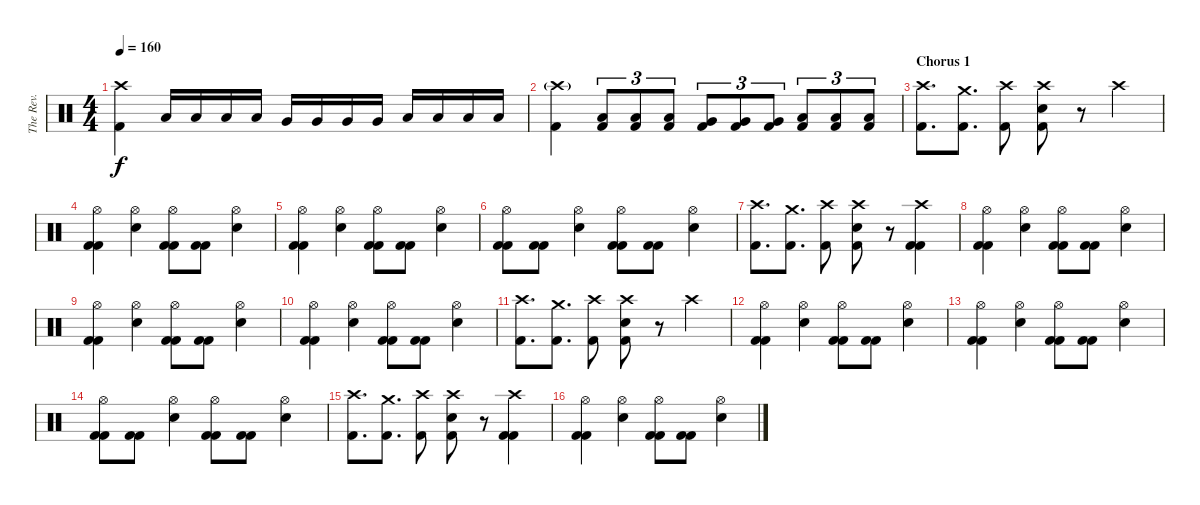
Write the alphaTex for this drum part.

\track ("The Rev." "The Rev.") {instrument percussion}
\staff {score}
\articulation defaults
\ts (4 4)
\tempo 160
\clef neutral
\ks c
("Crash high (hit)" "Kick (hit) 2").4{dy f} "Low Tom (hit)".16 "Low Tom (hit)".16 "Low Tom (hit)".16 "Low Tom (hit)".16 "Very Low Tom (hit)".16 "Very Low Tom (hit)".16 "Very Low Tom (hit)".16 "Very Low Tom (hit)".16 "Low Floor Tom (hit)".16 "Low Floor Tom (hit)".16 "Low Floor Tom (hit)".16 "Low Floor Tom (hit)".16 |
("Crash high (hit)"{g} "Kick (hit) 2").4 ("Low Tom (hit)" "Kick (hit) 2").8{tu (3 2)} ("Low Tom (hit)" "Kick (hit) 2").8{tu (3 2)} ("Low Tom (hit)" "Kick (hit) 2").8{tu (3 2)} ("Very Low Tom (hit)" "Kick (hit) 2").8{tu (3 2)} ("Very Low Tom (hit)" "Kick (hit) 2").8{tu (3 2)} ("Very Low Tom (hit)" "Kick (hit) 2").8{tu (3 2)} ("Low Floor Tom (hit)" "Kick (hit) 2").8{tu (3 2)} ("Low Floor Tom (hit)" "Kick (hit) 2").8{tu (3 2)} ("Low Floor Tom (hit)" "Kick (hit) 2").8{tu (3 2)} |
\section ("" "Chorus 1")
("Crash high (hit)" "Kick (hit) 2").8{d} ("Crash medium (hit)" "Kick (hit) 2").8{d} ("Crash high (hit)" "Kick (hit) 2").8 ("Crash high (hit)" "Electric Snare (hit)" "Kick (hit) 2").8 r.8 "Crash high (hit)".4 |
("Hi-Hat (open)" "Kick (hit) 2" "Kick (hit) 2").4 ("Hi-Hat (open)" "Electric Snare (hit)").4 ("Hi-Hat (open)" "Kick (hit) 2" "Kick (hit) 2").8 ("Kick (hit) 2" "Kick (hit) 2").8 ("Hi-Hat (open)" "Electric Snare (hit)").4 |
("Hi-Hat (open)" "Kick (hit) 2" "Kick (hit) 2").4 ("Hi-Hat (open)" "Electric Snare (hit)").4 ("Hi-Hat (open)" "Kick (hit) 2" "Kick (hit) 2").8 ("Kick (hit) 2" "Kick (hit) 2").8 ("Hi-Hat (open)" "Electric Snare (hit)").4 |
("Hi-Hat (open)" "Kick (hit) 2" "Kick (hit) 2").8 ("Kick (hit) 2" "Kick (hit) 2").8 ("Hi-Hat (open)" "Electric Snare (hit)").4 ("Hi-Hat (open)" "Kick (hit) 2" "Kick (hit) 2").8 ("Kick (hit) 2" "Kick (hit) 2").8 ("Hi-Hat (open)" "Electric Snare (hit)").4 |
("Crash high (hit)" "Kick (hit) 2").8{d} ("Crash medium (hit)" "Kick (hit) 2").8{d} ("Crash high (hit)" "Kick (hit) 2").8 ("Crash high (hit)" "Electric Snare (hit)" "Kick (hit) 2").8 r.8 ("Crash high (hit)" "Kick (hit) 2" "Kick (hit) 2").4 |
("Hi-Hat (open)" "Kick (hit) 2" "Kick (hit) 2").4 ("Hi-Hat (open)" "Electric Snare (hit)").4 ("Hi-Hat (open)" "Kick (hit) 2" "Kick (hit) 2").8 ("Kick (hit) 2" "Kick (hit) 2").8 ("Hi-Hat (open)" "Electric Snare (hit)").4 |
("Hi-Hat (open)" "Kick (hit) 2" "Kick (hit) 2").4 ("Hi-Hat (open)" "Electric Snare (hit)").4 ("Hi-Hat (open)" "Kick (hit) 2" "Kick (hit) 2").8 ("Kick (hit) 2" "Kick (hit) 2").8 ("Hi-Hat (open)" "Electric Snare (hit)").4 |
("Hi-Hat (open)" "Kick (hit) 2" "Kick (hit) 2").4 ("Hi-Hat (open)" "Electric Snare (hit)").4 ("Hi-Hat (open)" "Kick (hit) 2" "Kick (hit) 2").8 ("Kick (hit) 2" "Kick (hit) 2").8 ("Hi-Hat (open)" "Electric Snare (hit)").4 |
("Crash high (hit)" "Kick (hit) 2").8{d} ("Crash medium (hit)" "Kick (hit) 2").8{d} ("Crash high (hit)" "Kick (hit) 2").8 ("Crash high (hit)" "Electric Snare (hit)" "Kick (hit) 2").8 r.8 "Crash high (hit)".4 |
("Hi-Hat (open)" "Kick (hit) 2" "Kick (hit) 2").4 ("Hi-Hat (open)" "Electric Snare (hit)").4 ("Hi-Hat (open)" "Kick (hit) 2" "Kick (hit) 2").8 ("Kick (hit) 2" "Kick (hit) 2").8 ("Hi-Hat (open)" "Electric Snare (hit)").4 |
("Hi-Hat (open)" "Kick (hit) 2" "Kick (hit) 2").4 ("Hi-Hat (open)" "Electric Snare (hit)").4 ("Hi-Hat (open)" "Kick (hit) 2" "Kick (hit) 2").8 ("Kick (hit) 2" "Kick (hit) 2").8 ("Hi-Hat (open)" "Electric Snare (hit)").4 |
("Hi-Hat (open)" "Kick (hit) 2" "Kick (hit) 2").8 ("Kick (hit) 2" "Kick (hit) 2").8 ("Hi-Hat (open)" "Electric Snare (hit)").4 ("Hi-Hat (open)" "Kick (hit) 2" "Kick (hit) 2").8 ("Kick (hit) 2" "Kick (hit) 2").8 ("Hi-Hat (open)" "Electric Snare (hit)").4 |
("Crash high (hit)" "Kick (hit) 2").8{d} ("Crash medium (hit)" "Kick (hit) 2").8{d} ("Crash high (hit)" "Kick (hit) 2").8 ("Crash high (hit)" "Electric Snare (hit)" "Kick (hit) 2").8 r.8 ("Crash high (hit)" "Kick (hit) 2" "Kick (hit) 2").4 |
("Hi-Hat (open)" "Kick (hit) 2" "Kick (hit) 2").4 ("Hi-Hat (open)" "Electric Snare (hit)").4 ("Hi-Hat (open)" "Kick (hit) 2" "Kick (hit) 2").8 ("Kick (hit) 2" "Kick (hit) 2").8 ("Hi-Hat (open)" "Electric Snare (hit)").4
